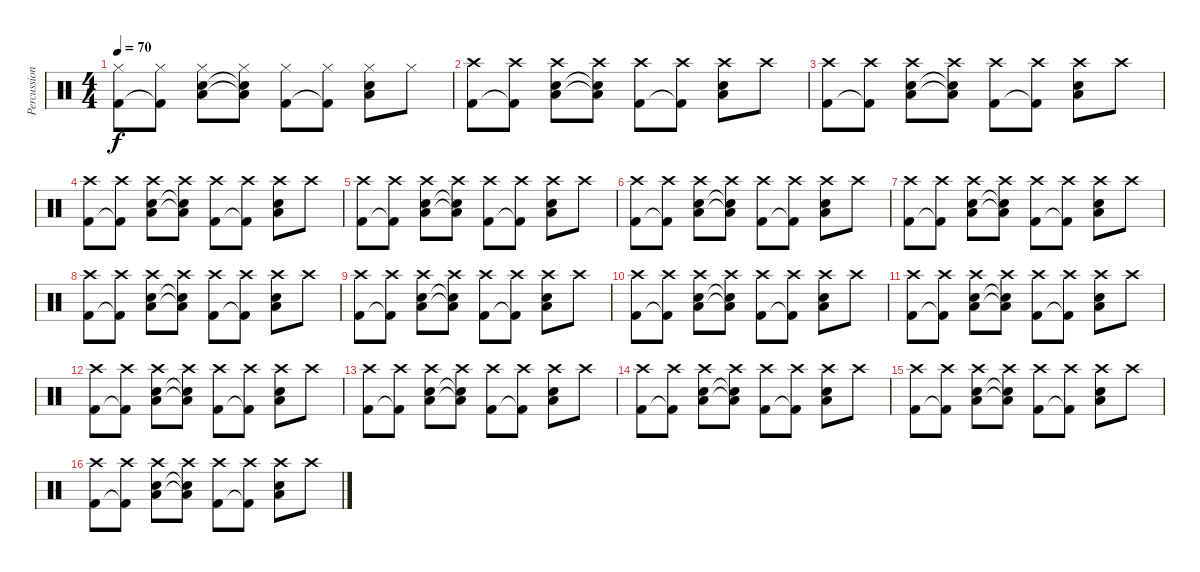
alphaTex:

\track ("Percussions" "Percussion") {instrument percussion}
\staff {score}
\articulation defaults
\ts (4 4)
\tempo 70
\clef neutral
\ks c
("Hi-Hat (closed)" "Kick (hit) 2").8{dy f} ("Hi-Hat (closed)" "Kick (hit) 2"{t}).8 ("Hi-Hat (closed)" "Electric Snare (hit)" "Low Tom (hit)").8 ("Hi-Hat (closed)" "Electric Snare (hit)"{t} "Low Tom (hit)"{t}).8 ("Hi-Hat (closed)" "Kick (hit) 2").8 ("Hi-Hat (closed)" "Kick (hit) 2"{t}).8 ("Hi-Hat (closed)" "Electric Snare (hit)" "Low Tom (hit)").8 "Hi-Hat (closed)".8 |
("Crash high (hit)" "Kick (hit) 2").8 ("Crash high (hit)" "Kick (hit) 2"{t}).8 ("Crash high (hit)" "Electric Snare (hit)" "Low Tom (hit)").8 ("Crash high (hit)" "Electric Snare (hit)"{t} "Low Tom (hit)"{t}).8 ("Crash high (hit)" "Kick (hit) 2").8 ("Crash high (hit)" "Kick (hit) 2"{t}).8 ("Crash high (hit)" "Electric Snare (hit)" "Low Tom (hit)").8 "Crash high (hit)".8 |
("Crash high (hit)" "Kick (hit) 2").8 ("Crash high (hit)" "Kick (hit) 2"{t}).8 ("Crash high (hit)" "Electric Snare (hit)" "Low Tom (hit)").8 ("Crash high (hit)" "Electric Snare (hit)"{t} "Low Tom (hit)"{t}).8 ("Crash high (hit)" "Kick (hit) 2").8 ("Crash high (hit)" "Kick (hit) 2"{t}).8 ("Crash high (hit)" "Electric Snare (hit)" "Low Tom (hit)").8 "Crash high (hit)".8 |
("Crash high (hit)" "Kick (hit) 2").8 ("Crash high (hit)" "Kick (hit) 2"{t}).8 ("Crash high (hit)" "Electric Snare (hit)" "Low Tom (hit)").8 ("Crash high (hit)" "Electric Snare (hit)"{t} "Low Tom (hit)"{t}).8 ("Crash high (hit)" "Kick (hit) 2").8 ("Crash high (hit)" "Kick (hit) 2"{t}).8 ("Crash high (hit)" "Electric Snare (hit)" "Low Tom (hit)").8 "Crash high (hit)".8 |
("Crash high (hit)" "Kick (hit) 2").8 ("Crash high (hit)" "Kick (hit) 2"{t}).8 ("Crash high (hit)" "Electric Snare (hit)" "Low Tom (hit)").8 ("Crash high (hit)" "Electric Snare (hit)"{t} "Low Tom (hit)"{t}).8 ("Crash high (hit)" "Kick (hit) 2").8 ("Crash high (hit)" "Kick (hit) 2"{t}).8 ("Crash high (hit)" "Electric Snare (hit)" "Low Tom (hit)").8 "Crash high (hit)".8 |
("Crash high (hit)" "Kick (hit) 2").8 ("Crash high (hit)" "Kick (hit) 2"{t}).8 ("Crash high (hit)" "Electric Snare (hit)" "Low Tom (hit)").8 ("Crash high (hit)" "Electric Snare (hit)"{t} "Low Tom (hit)"{t}).8 ("Crash high (hit)" "Kick (hit) 2").8 ("Crash high (hit)" "Kick (hit) 2"{t}).8 ("Crash high (hit)" "Electric Snare (hit)" "Low Tom (hit)").8 "Crash high (hit)".8 |
("Crash high (hit)" "Kick (hit) 2").8 ("Crash high (hit)" "Kick (hit) 2"{t}).8 ("Crash high (hit)" "Electric Snare (hit)" "Low Tom (hit)").8 ("Crash high (hit)" "Electric Snare (hit)"{t} "Low Tom (hit)"{t}).8 ("Crash high (hit)" "Kick (hit) 2").8 ("Crash high (hit)" "Kick (hit) 2"{t}).8 ("Crash high (hit)" "Electric Snare (hit)" "Low Tom (hit)").8 "Crash high (hit)".8 |
("Crash high (hit)" "Kick (hit) 2").8 ("Crash high (hit)" "Kick (hit) 2"{t}).8 ("Crash high (hit)" "Electric Snare (hit)" "Low Tom (hit)").8 ("Crash high (hit)" "Electric Snare (hit)"{t} "Low Tom (hit)"{t}).8 ("Crash high (hit)" "Kick (hit) 2").8 ("Crash high (hit)" "Kick (hit) 2"{t}).8 ("Crash high (hit)" "Electric Snare (hit)" "Low Tom (hit)").8 "Crash high (hit)".8 |
("Crash high (hit)" "Kick (hit) 2").8 ("Crash high (hit)" "Kick (hit) 2"{t}).8 ("Crash high (hit)" "Electric Snare (hit)" "Low Tom (hit)").8 ("Crash high (hit)" "Electric Snare (hit)"{t} "Low Tom (hit)"{t}).8 ("Crash high (hit)" "Kick (hit) 2").8 ("Crash high (hit)" "Kick (hit) 2"{t}).8 ("Crash high (hit)" "Electric Snare (hit)" "Low Tom (hit)").8 "Crash high (hit)".8 |
("Crash high (hit)" "Kick (hit) 2").8 ("Crash high (hit)" "Kick (hit) 2"{t}).8 ("Crash high (hit)" "Electric Snare (hit)" "Low Tom (hit)").8 ("Crash high (hit)" "Electric Snare (hit)"{t} "Low Tom (hit)"{t}).8 ("Crash high (hit)" "Kick (hit) 2").8 ("Crash high (hit)" "Kick (hit) 2"{t}).8 ("Crash high (hit)" "Electric Snare (hit)" "Low Tom (hit)").8 "Crash high (hit)".8 |
("Crash high (hit)" "Kick (hit) 2").8 ("Crash high (hit)" "Kick (hit) 2"{t}).8 ("Crash high (hit)" "Electric Snare (hit)" "Low Tom (hit)").8 ("Crash high (hit)" "Electric Snare (hit)"{t} "Low Tom (hit)"{t}).8 ("Crash high (hit)" "Kick (hit) 2").8 ("Crash high (hit)" "Kick (hit) 2"{t}).8 ("Crash high (hit)" "Electric Snare (hit)" "Low Tom (hit)").8 "Crash high (hit)".8 |
("Crash high (hit)" "Kick (hit) 2").8 ("Crash high (hit)" "Kick (hit) 2"{t}).8 ("Crash high (hit)" "Electric Snare (hit)" "Low Tom (hit)").8 ("Crash high (hit)" "Electric Snare (hit)"{t} "Low Tom (hit)"{t}).8 ("Crash high (hit)" "Kick (hit) 2").8 ("Crash high (hit)" "Kick (hit) 2"{t}).8 ("Crash high (hit)" "Electric Snare (hit)" "Low Tom (hit)").8 "Crash high (hit)".8 |
("Crash high (hit)" "Kick (hit) 2").8 ("Crash high (hit)" "Kick (hit) 2"{t}).8 ("Crash high (hit)" "Electric Snare (hit)" "Low Tom (hit)").8 ("Crash high (hit)" "Electric Snare (hit)"{t} "Low Tom (hit)"{t}).8 ("Crash high (hit)" "Kick (hit) 2").8 ("Crash high (hit)" "Kick (hit) 2"{t}).8 ("Crash high (hit)" "Electric Snare (hit)" "Low Tom (hit)").8 "Crash high (hit)".8 |
("Crash high (hit)" "Kick (hit) 2").8 ("Crash high (hit)" "Kick (hit) 2"{t}).8 ("Crash high (hit)" "Electric Snare (hit)" "Low Tom (hit)").8 ("Crash high (hit)" "Electric Snare (hit)"{t} "Low Tom (hit)"{t}).8 ("Crash high (hit)" "Kick (hit) 2").8 ("Crash high (hit)" "Kick (hit) 2"{t}).8 ("Crash high (hit)" "Electric Snare (hit)" "Low Tom (hit)").8 "Crash high (hit)".8 |
("Crash high (hit)" "Kick (hit) 2").8 ("Crash high (hit)" "Kick (hit) 2"{t}).8 ("Crash high (hit)" "Electric Snare (hit)" "Low Tom (hit)").8 ("Crash high (hit)" "Electric Snare (hit)"{t} "Low Tom (hit)"{t}).8 ("Crash high (hit)" "Kick (hit) 2").8 ("Crash high (hit)" "Kick (hit) 2"{t}).8 ("Crash high (hit)" "Electric Snare (hit)" "Low Tom (hit)").8 "Crash high (hit)".8 |
("Crash high (hit)" "Kick (hit) 2").8 ("Crash high (hit)" "Kick (hit) 2"{t}).8 ("Crash high (hit)" "Electric Snare (hit)" "Low Tom (hit)").8 ("Crash high (hit)" "Electric Snare (hit)"{t} "Low Tom (hit)"{t}).8 ("Crash high (hit)" "Kick (hit) 2").8 ("Crash high (hit)" "Kick (hit) 2"{t}).8 ("Crash high (hit)" "Electric Snare (hit)" "Low Tom (hit)").8 "Crash high (hit)".8
